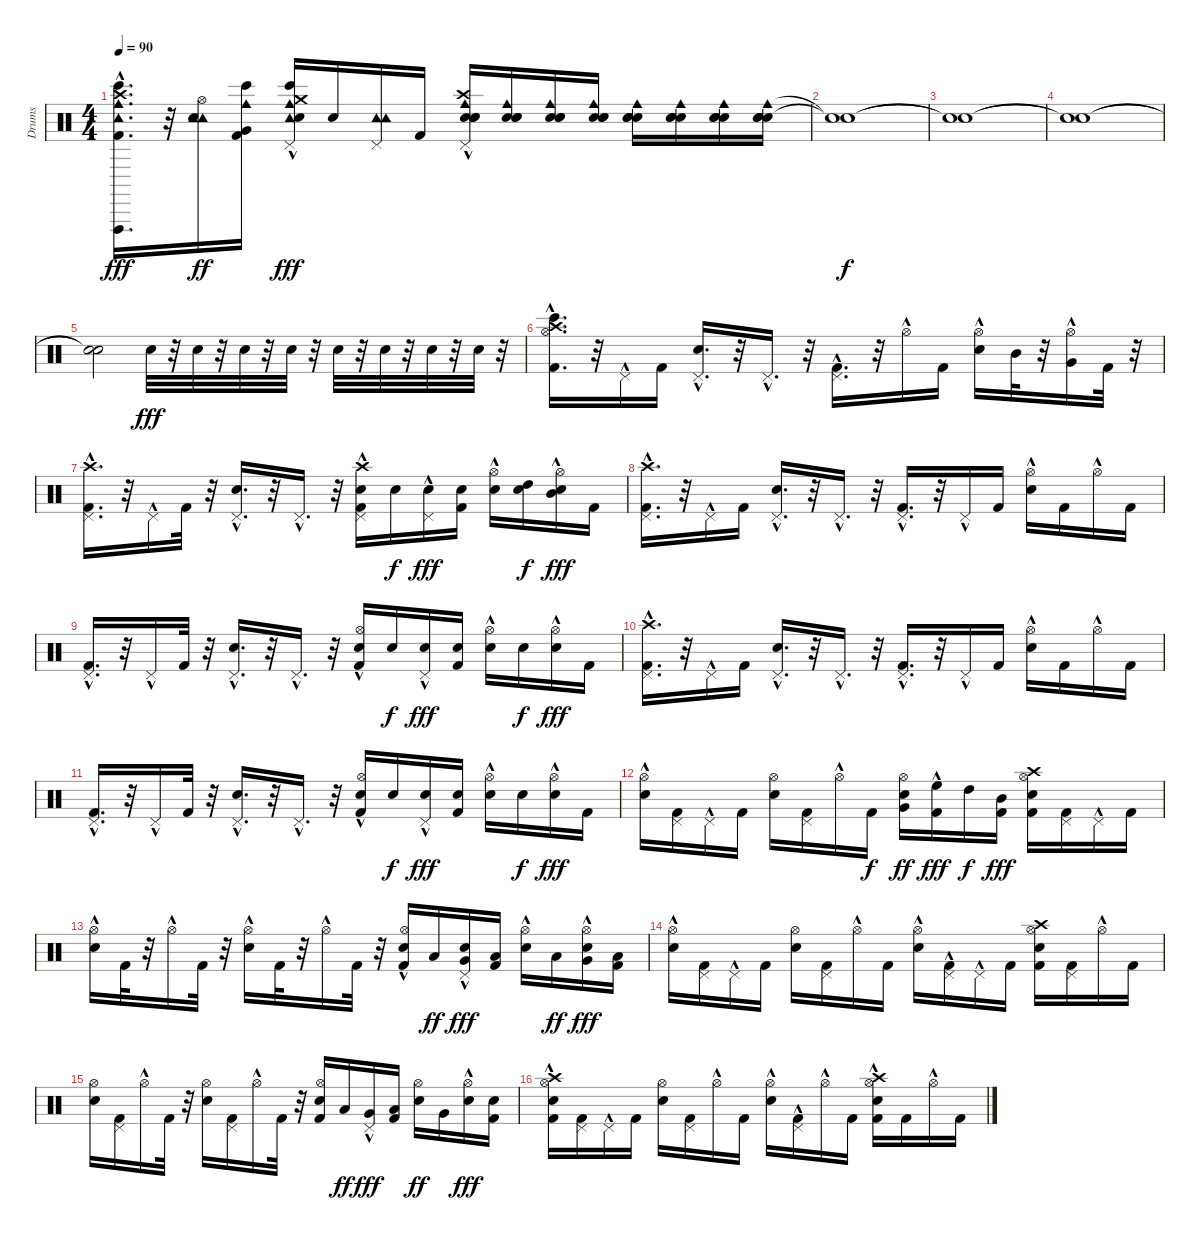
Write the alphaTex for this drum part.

\track ("Drums" "Drums") {instrument percussion}
\staff {score}
\articulation defaults
\ts (4 4)
\tempo 90
\clef neutral
\ks c
("Tambourine (hit)" "Vibraslap (hit)" "Cowbell medium (hit)" "Bongo High (hit)"{hac} "Crash high (hit)"{hac} "Kick (hit) 2"{hac}).16{d dy fff} r.32 ("Tambourine (hit)" "Hi-Hat (open)" "Tambourine (hit)" "Electric Snare (hit)").16{dy ff} ("Kick (hit) 2" "Bongo High (hit)" "Cowbell medium (hit)" "Very Low Tom (hit)").16 ("Crash medium (hit)"{hac} "Tambourine (hit)"{hac} "Pedal Hi-Hat (hit)" "Cowbell medium (hit)" "Electric Snare (hit)" "Bongo High (hit)"{hac}).16{dy fff} "Electric Snare (hit)".16 ("Tambourine (hit)" "Pedal Hi-Hat (hit)" "Tambourine (hit)").16 "Kick (hit) 2".16 ("Pedal Hi-Hat (hit)" "Cowbell medium (hit)" "Crash high (hit)"{hac} "Electric Snare (hit)" "Electric Snare (hit)" "Electric Snare (hit)").16 ("Electric Snare (hit)" "Cowbell medium (hit)" "Electric Snare (hit)" "Electric Snare (hit)").16 ("Electric Snare (hit)" "Cowbell medium (hit)" "Electric Snare (hit)" "Electric Snare (hit)").16 ("Electric Snare (hit)" "Electric Snare (hit)" "Cowbell medium (hit)" "Electric Snare (hit)").16 ("Electric Snare (hit)" "Cowbell medium (hit)" "Electric Snare (hit)" "Electric Snare (hit)").16 ("Electric Snare (hit)" "Cowbell medium (hit)" "Electric Snare (hit)" "Electric Snare (hit)").16 ("Electric Snare (hit)" "Cowbell medium (hit)" "Electric Snare (hit)" "Electric Snare (hit)").16 ("Electric Snare (hit)" "Cowbell medium (hit)" "Electric Snare (hit)" "Electric Snare (hit)").16 |
("Snare (hit)"{t} "Snare (hit)"{t}).1{dy f} |
("Snare (hit)"{t} "Snare (hit)"{t}).1 |
("Snare (hit)"{t} "Snare (hit)"{t}).1 |
("Snare (hit)"{t} "Snare (hit)"{t}).2 "Electric Snare (hit)".32{dy fff} r.32 "Electric Snare (hit)".32 r.32 "Electric Snare (hit)".32 r.32 "Electric Snare (hit)".32 r.32 "Electric Snare (hit)".32 r.32 "Electric Snare (hit)".32 r.32 "Electric Snare (hit)".32 r.32 "Electric Snare (hit)".32 r.32 |
("Bongo High (hit)" "Crash high (hit)" "Kick (hit) 2"{hac} "Hi-Hat (open)"{hac}).16{d} r.32 "Pedal Hi-Hat (hit)"{hac}.16 "Kick (hit) 2".16 ("Electric Snare (hit)"{hac} "Pedal Hi-Hat (hit)"{hac}).16{d} r.32 "Pedal Hi-Hat (hit)"{hac}.16{d} r.32 ("Kick (hit) 2"{hac} "Pedal Hi-Hat (hit)"{hac}).16{d} r.32 "Hi-Hat (open)"{hac}.16 "Kick (hit) 2".16 ("Electric Snare (hit)" "Hi-Hat (open)"{hac}).16 "Mid Tom (hit)".32 r.32 ("Hi-Hat (open)"{hac} "Very Low Tom (hit)").16 "Kick (hit) 2".32 r.32 |
("Crash high (hit)" "Kick (hit) 2" "Pedal Hi-Hat (hit)"{hac}).16{d} r.32 "Pedal Hi-Hat (hit)"{hac}.16 "Kick (hit) 2".32 r.32 ("Electric Snare (hit)" "Pedal Hi-Hat (hit)"{hac}).16{d} r.32 "Pedal Hi-Hat (hit)"{hac}.16{d} r.32 ("Electric Snare (hit)" "Crash high (hit)" "Kick (hit) 2" "Pedal Hi-Hat (hit)"{hac}).16 "Electric Snare (hit)".16{dy f} ("Electric Snare (hit)" "Pedal Hi-Hat (hit)"{hac}).16{dy fff} ("Electric Snare (hit)" "Kick (hit) 2").16 ("Electric Snare (hit)" "Hi-Hat (open)"{hac}).16 ("High Tom (hit)" "Electric Snare (hit)").16{dy f} ("Mid Tom (hit)" "Electric Snare (hit)" "Hi-Hat (open)"{hac}).16{dy fff} "Kick (hit) 2".16 |
("Crash high (hit)" "Kick (hit) 2" "Pedal Hi-Hat (hit)"{hac}).16{d} r.32 "Pedal Hi-Hat (hit)"{hac}.16 "Kick (hit) 2".16 ("Electric Snare (hit)" "Pedal Hi-Hat (hit)"{hac}).16{d} r.32 "Pedal Hi-Hat (hit)"{hac}.16{d} r.32 ("Pedal Hi-Hat (hit)"{hac} "Kick (hit) 2"{hac}).16{d} r.32 "Pedal Hi-Hat (hit)"{hac}.16 "Kick (hit) 2".16 ("Hi-Hat (open)"{hac} "Electric Snare (hit)").16 "Kick (hit) 2".16 "Hi-Hat (open)"{hac}.16 "Kick (hit) 2".16 |
("Pedal Hi-Hat (hit)"{hac} "Kick (hit) 2").16{d} r.32 "Pedal Hi-Hat (hit)"{hac}.16 "Kick (hit) 2".32 r.32 ("Pedal Hi-Hat (hit)"{hac} "Electric Snare (hit)").16{d} r.32 "Pedal Hi-Hat (hit)"{hac}.16{d} r.32 ("Hi-Hat (open)"{hac} "Electric Snare (hit)" "Kick (hit) 2").16 "Electric Snare (hit)".16{dy f} ("Pedal Hi-Hat (hit)"{hac} "Electric Snare (hit)").16{dy fff} ("Electric Snare (hit)" "Kick (hit) 2").16 ("Hi-Hat (open)"{hac} "Electric Snare (hit)").16 "Electric Snare (hit)".16{dy f} ("Hi-Hat (open)"{hac} "Electric Snare (hit)").16{dy fff} "Kick (hit) 2".16 |
("Crash high (hit)" "Kick (hit) 2" "Pedal Hi-Hat (hit)"{hac}).16{d} r.32 "Pedal Hi-Hat (hit)"{hac}.16 "Kick (hit) 2".16 ("Electric Snare (hit)" "Pedal Hi-Hat (hit)"{hac}).16{d} r.32 "Pedal Hi-Hat (hit)"{hac}.16{d} r.32 ("Pedal Hi-Hat (hit)"{hac} "Kick (hit) 2"{hac}).16{d} r.32 "Pedal Hi-Hat (hit)"{hac}.16 "Kick (hit) 2".16 ("Hi-Hat (open)"{hac} "Electric Snare (hit)").16 "Kick (hit) 2".16 "Hi-Hat (open)"{hac}.16 "Kick (hit) 2".16 |
("Pedal Hi-Hat (hit)"{hac} "Kick (hit) 2").16{d} r.32 "Pedal Hi-Hat (hit)"{hac}.16 "Kick (hit) 2".32 r.32 ("Pedal Hi-Hat (hit)"{hac} "Electric Snare (hit)").16{d} r.32 "Pedal Hi-Hat (hit)"{hac}.16{d} r.32 ("Hi-Hat (open)"{hac} "Electric Snare (hit)" "Kick (hit) 2").16 "Electric Snare (hit)".16{dy f} ("Pedal Hi-Hat (hit)"{hac} "Electric Snare (hit)").16{dy fff} ("Electric Snare (hit)" "Kick (hit) 2").16 ("Hi-Hat (open)"{hac} "Electric Snare (hit)").16 "Electric Snare (hit)".16{dy f} ("Hi-Hat (open)"{hac} "Electric Snare (hit)").16{dy fff} "Kick (hit) 2".16 |
("Hi-Hat (open)" "Electric Snare (hit)"{hac}).16 ("Kick (hit) 2" "Pedal Hi-Hat (hit)").16 "Pedal Hi-Hat (hit)"{hac}.16 "Kick (hit) 2".16 ("Electric Snare (hit)" "Hi-Hat (open)").16 ("Kick (hit) 2" "Pedal Hi-Hat (hit)").16 "Hi-Hat (open)"{hac}.16 "Kick (hit) 2".16{dy f} ("Electric Snare (hit)" "Hi-Hat (open)" "Very Low Tom (hit)").16{dy ff} ("Kick (hit) 2"{hac} "High Floor Tom (hit)").16{dy fff} "High Tom (hit)".16{dy f} ("Kick (hit) 2" "Mid Tom (hit)").16{dy fff} ("Kick (hit) 2" "Crash high (hit)" "Hi-Hat (open)" "Electric Snare (hit)").16 ("Kick (hit) 2" "Pedal Hi-Hat (hit)").16 "Pedal Hi-Hat (hit)"{hac}.16 "Kick (hit) 2".16 |
("Hi-Hat (open)"{hac} "Electric Snare (hit)").16 "Kick (hit) 2".32 r.32 "Hi-Hat (open)"{hac}.16 "Kick (hit) 2".32 r.32 ("Hi-Hat (open)"{hac} "Electric Snare (hit)").16 "Kick (hit) 2".32 r.32 "Hi-Hat (open)"{hac}.16 "Kick (hit) 2".32 r.32 ("Hi-Hat (open)"{hac} "Electric Snare (hit)" "Kick (hit) 2").16 "Low Tom (hit)".16{dy ff} ("Electric Snare (hit)" "Pedal Hi-Hat (hit)"{hac} "Very Low Tom (hit)").16{dy fff} ("Low Floor Tom (hit)" "Kick (hit) 2").16 ("Hi-Hat (open)"{hac} "Electric Snare (hit)").16 "Low Tom (hit)".16{dy ff} ("Electric Snare (hit)" "Hi-Hat (open)"{hac} "Very Low Tom (hit)").16{dy fff} ("Low Floor Tom (hit)" "Kick (hit) 2").16 |
("Hi-Hat (open)" "Electric Snare (hit)"{hac}).16 ("Pedal Hi-Hat (hit)" "Kick (hit) 2").16 "Pedal Hi-Hat (hit)"{hac}.16 "Kick (hit) 2".16 ("Electric Snare (hit)" "Hi-Hat (open)").16 ("Pedal Hi-Hat (hit)" "Kick (hit) 2").16 "Hi-Hat (open)"{hac}.16 "Kick (hit) 2".16 ("Electric Snare (hit)"{hac} "Hi-Hat (open)").16 ("Pedal Hi-Hat (hit)" "Kick (hit) 2"{hac}).16 "Pedal Hi-Hat (hit)"{hac}.16 "Kick (hit) 2".16 ("Kick (hit) 2" "Crash high (hit)" "Hi-Hat (open)" "Electric Snare (hit)").16 ("Pedal Hi-Hat (hit)" "Kick (hit) 2").16 "Hi-Hat (open)"{hac}.16 "Kick (hit) 2".16 |
("Hi-Hat (open)" "Electric Snare (hit)").16 ("Pedal Hi-Hat (hit)" "Kick (hit) 2").16 "Hi-Hat (open)"{hac}.16 "Kick (hit) 2".32 r.32 ("Hi-Hat (open)" "Electric Snare (hit)").16 ("Pedal Hi-Hat (hit)" "Kick (hit) 2").16 "Hi-Hat (open)"{hac}.16 "Kick (hit) 2".32 r.32 ("Hi-Hat (open)" "Electric Snare (hit)" "Kick (hit) 2").16 "Low Tom (hit)".16{dy ff} ("Pedal Hi-Hat (hit)"{hac} "Very Low Tom (hit)").16{dy fff} ("Low Floor Tom (hit)" "Kick (hit) 2").16 ("Hi-Hat (open)" "Electric Snare (hit)").16{dy ff} "Very Low Tom (hit)".16 ("Hi-Hat (open)"{hac} "Electric Snare (hit)").16{dy fff} ("Electric Snare (hit)" "Kick (hit) 2").16 |
("Kick (hit) 2" "Crash high (hit)" "Hi-Hat (open)" "Electric Snare (hit)"{hac}).16 ("Pedal Hi-Hat (hit)" "Kick (hit) 2").16 "Pedal Hi-Hat (hit)"{hac}.16 "Kick (hit) 2".16 ("Electric Snare (hit)" "Hi-Hat (open)").16 ("Pedal Hi-Hat (hit)" "Kick (hit) 2").16 "Hi-Hat (open)"{hac}.16 "Kick (hit) 2".16 ("Electric Snare (hit)"{hac} "Hi-Hat (open)").16 ("Pedal Hi-Hat (hit)" "Kick (hit) 2"{hac}).16 "Hi-Hat (open)"{hac}.16 "Kick (hit) 2".16 ("Kick (hit) 2" "Crash high (hit)" "Hi-Hat (open)"{hac} "Electric Snare (hit)").16 "Kick (hit) 2".16 "Hi-Hat (open)"{hac}.16 "Kick (hit) 2".16
